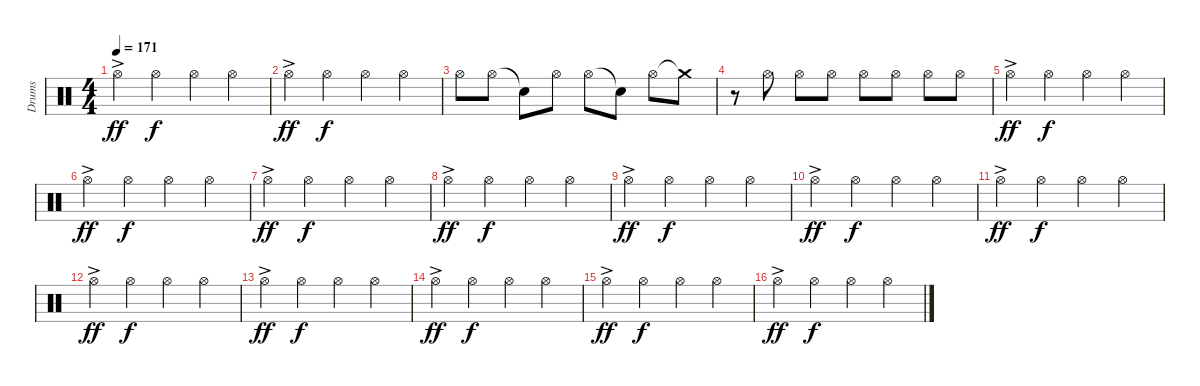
\track ("Drums" "Drums") {instrument percussion}
\staff {score}
\articulation defaults
\ts (4 4)
\tempo 171
\clef neutral
\ks c "Hi-Hat (open)"{ac}.4{dy ff} "Hi-Hat (open)".4{dy f} "Hi-Hat (open)".4 "Hi-Hat (open)".4
|
"Hi-Hat (open)"{ac}.4{dy ff} "Hi-Hat (open)".4{dy f} "Hi-Hat (open)".4 "Hi-Hat (open)".4 |
"Hi-Hat (open)".8 "Hi-Hat (open)".8 "Snare (hit)"{t}.8 "Hi-Hat (open)".8 "Hi-Hat (open)".8 "Snare (hit)"{t}.8 "Hi-Hat (open)".8 "Crash medium (hit)"{t}.8 |
r.8 "Hi-Hat (open)".8 "Hi-Hat (open)".8 "Hi-Hat (open)".8 "Hi-Hat (open)".8 "Hi-Hat (open)".8 "Hi-Hat (open)".8 "Hi-Hat (open)".8 |
"Hi-Hat (open)"{ac}.4{dy ff} "Hi-Hat (open)".4{dy f} "Hi-Hat (open)".4 "Hi-Hat (open)".4 |
"Hi-Hat (open)"{ac}.4{dy ff} "Hi-Hat (open)".4{dy f} "Hi-Hat (open)".4 "Hi-Hat (open)".4 |
"Hi-Hat (open)"{ac}.4{dy ff} "Hi-Hat (open)".4{dy f} "Hi-Hat (open)".4 "Hi-Hat (open)".4 |
"Hi-Hat (open)"{ac}.4{dy ff} "Hi-Hat (open)".4{dy f} "Hi-Hat (open)".4 "Hi-Hat (open)".4 |
"Hi-Hat (open)"{ac}.4{dy ff} "Hi-Hat (open)".4{dy f} "Hi-Hat (open)".4 "Hi-Hat (open)".4 |
"Hi-Hat (open)"{ac}.4{dy ff} "Hi-Hat (open)".4{dy f} "Hi-Hat (open)".4 "Hi-Hat (open)".4 |
"Hi-Hat (open)"{ac}.4{dy ff} "Hi-Hat (open)".4{dy f} "Hi-Hat (open)".4 "Hi-Hat (open)".4 |
"Hi-Hat (open)"{ac}.4{dy ff} "Hi-Hat (open)".4{dy f} "Hi-Hat (open)".4 "Hi-Hat (open)".4 |
"Hi-Hat (open)"{ac}.4{dy ff} "Hi-Hat (open)".4{dy f} "Hi-Hat (open)".4 "Hi-Hat (open)".4 |
"Hi-Hat (open)"{ac}.4{dy ff} "Hi-Hat (open)".4{dy f} "Hi-Hat (open)".4 "Hi-Hat (open)".4 |
"Hi-Hat (open)"{ac}.4{dy ff} "Hi-Hat (open)".4{dy f} "Hi-Hat (open)".4 "Hi-Hat (open)".4 |
"Hi-Hat (open)"{ac}.4{dy ff} "Hi-Hat (open)".4{dy f} "Hi-Hat (open)".4 "Hi-Hat (open)".4
